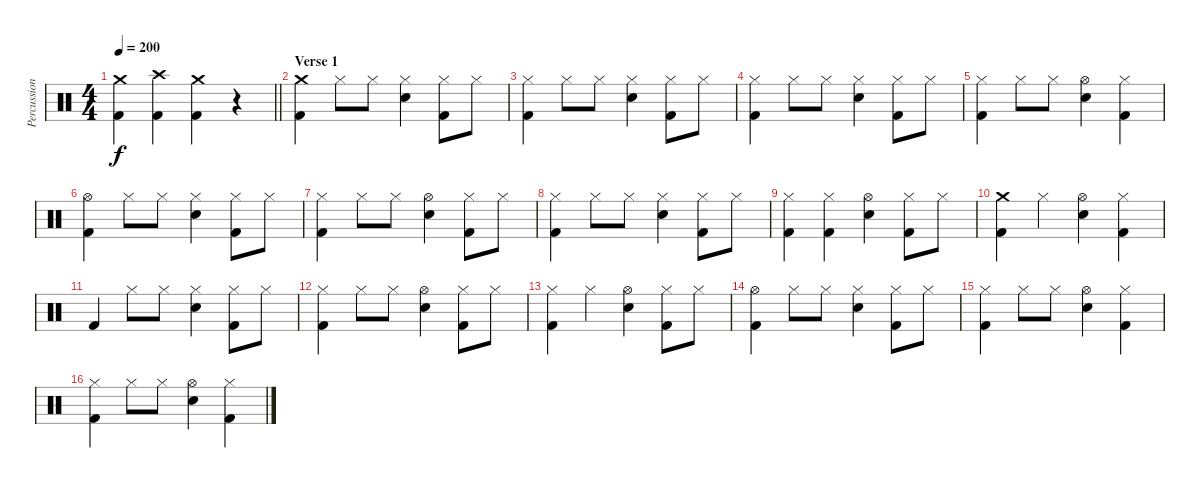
\track ("Percussion" "Percussion") {instrument percussion}
\staff {score}
\articulation defaults
\ts (4 4)
\tempo 200
\clef neutral
\barLineRight lightlight
\ks c
("Crash medium (hit)" "Kick (hit) 2").4{dy f} ("Crash high (hit)" "Kick (hit) 2").4 ("Crash medium (hit)" "Kick (hit) 2").4 r.4 |
\section ("" "Verse 1")
("Crash medium (hit)" "Kick (hit) 2").4 "Hi-Hat (closed)".8 "Hi-Hat (closed)".8 ("Hi-Hat (closed)" "Snare (hit) 2").4 ("Hi-Hat (closed)" "Kick (hit) 2").8 "Hi-Hat (closed)".8 |
("Hi-Hat (closed)" "Kick (hit) 2").4 "Hi-Hat (closed)".8 "Hi-Hat (closed)".8 ("Hi-Hat (closed)" "Snare (hit) 2").4 ("Hi-Hat (closed)" "Kick (hit) 2").8 "Hi-Hat (closed)".8 |
("Hi-Hat (closed)" "Kick (hit) 2").4 "Hi-Hat (closed)".8 "Hi-Hat (closed)".8 ("Hi-Hat (closed)" "Snare (hit) 2").4 ("Hi-Hat (closed)" "Kick (hit) 2").8 "Hi-Hat (closed)".8 |
("Hi-Hat (closed)" "Kick (hit) 2").4 "Hi-Hat (closed)".8 "Hi-Hat (closed)".8 ("Hi-Hat (open)" "Snare (hit) 2").4 ("Hi-Hat (closed)" "Kick (hit) 2").4 |
("Hi-Hat (open)" "Kick (hit) 2").4 "Hi-Hat (closed)".8 "Hi-Hat (closed)".8 ("Hi-Hat (closed)" "Snare (hit) 2").4 ("Hi-Hat (closed)" "Kick (hit) 2").8 "Hi-Hat (closed)".8 |
("Hi-Hat (closed)" "Kick (hit) 2").4 "Hi-Hat (closed)".8 "Hi-Hat (closed)".8 ("Hi-Hat (open)" "Snare (hit) 2").4 ("Hi-Hat (closed)" "Kick (hit) 2").8 "Hi-Hat (closed)".8 |
("Hi-Hat (closed)" "Kick (hit) 2").4 "Hi-Hat (closed)".8 "Hi-Hat (closed)".8 ("Hi-Hat (closed)" "Snare (hit) 2").4 ("Hi-Hat (closed)" "Kick (hit) 2").8 "Hi-Hat (closed)".8 |
("Hi-Hat (closed)" "Kick (hit) 2").4 ("Hi-Hat (closed)" "Kick (hit) 2").4 ("Hi-Hat (open)" "Snare (hit) 2").4 ("Hi-Hat (closed)" "Kick (hit) 2").8 "Hi-Hat (closed)".8 |
("Crash medium (hit)" "Kick (hit) 2").4 "Hi-Hat (closed)".4 ("Hi-Hat (open)" "Snare (hit) 2").4 ("Hi-Hat (closed)" "Kick (hit) 2").4 |
"Kick (hit) 2".4 "Hi-Hat (closed)".8 "Hi-Hat (closed)".8 ("Hi-Hat (closed)" "Snare (hit) 2").4 ("Hi-Hat (closed)" "Kick (hit) 2").8 "Hi-Hat (closed)".8 |
("Hi-Hat (closed)" "Kick (hit) 2").4 "Hi-Hat (closed)".8 "Hi-Hat (closed)".8 ("Hi-Hat (open)" "Snare (hit) 2").4 ("Hi-Hat (closed)" "Kick (hit) 2").8 "Hi-Hat (closed)".8 |
("Hi-Hat (closed)" "Kick (hit) 2").4 "Hi-Hat (closed)".4 ("Hi-Hat (open)" "Snare (hit) 2").4 ("Hi-Hat (closed)" "Kick (hit) 2").8 "Hi-Hat (closed)".8 |
("Hi-Hat (open)" "Kick (hit) 2").4 "Hi-Hat (closed)".8 "Hi-Hat (closed)".8 ("Hi-Hat (closed)" "Snare (hit) 2").4 ("Hi-Hat (closed)" "Kick (hit) 2").8 "Hi-Hat (closed)".8 |
("Hi-Hat (closed)" "Kick (hit) 2").4 "Hi-Hat (closed)".8 "Hi-Hat (closed)".8 ("Hi-Hat (open)" "Snare (hit) 2").4 ("Hi-Hat (closed)" "Kick (hit) 2").4 |
("Hi-Hat (closed)" "Kick (hit) 2").4 "Hi-Hat (closed)".8 "Hi-Hat (closed)".8 ("Hi-Hat (open)" "Snare (hit) 2").4 ("Hi-Hat (closed)" "Kick (hit) 2").4
